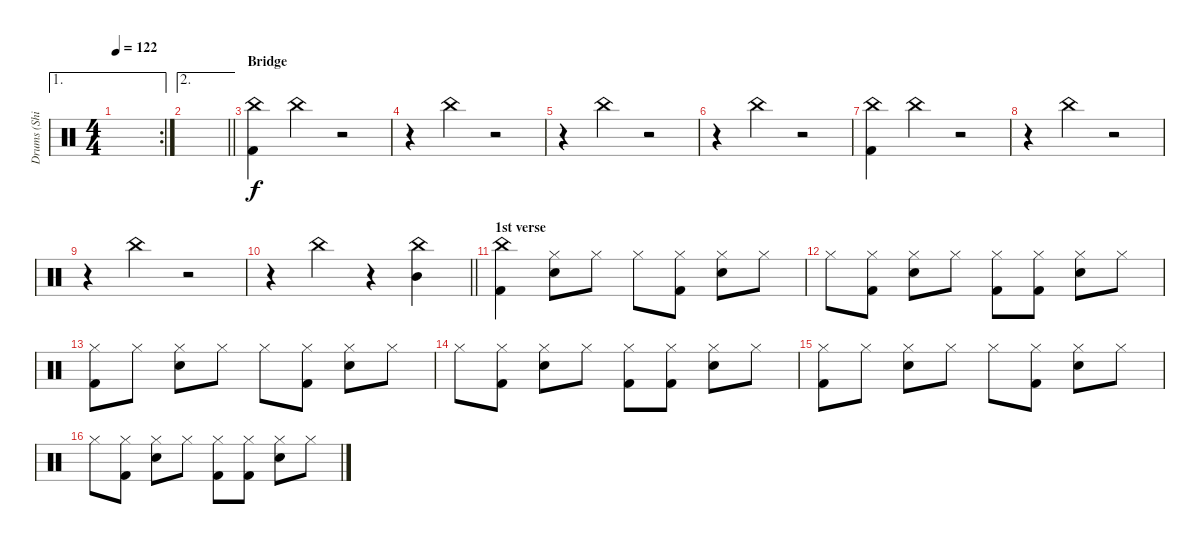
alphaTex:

\track ("Drums (Shinya)" "Drums (Shi") {instrument percussion}
\staff {score}
\articulation defaults
\ae 1
\rc 2
\ts (4 4)
\tempo 122
\clef neutral
\ks c
|
\ae 2
\barLineRight lightlight
|
\section ("" "Bridge")
("China (hit)" "Kick (hit) 2").4 "China (hit)".4 r.2 |
r.4 "China (hit)".4 r.2 |
r.4 "China (hit)".4 r.2 |
r.4 "China (hit)".4 r.2 |
("China (hit)" "Kick (hit) 2").4 "China (hit)".4 r.2 |
r.4 "China (hit)".4 r.2 |
r.4 "China (hit)".4 r.2 |
\barLineRight lightlight
r.4 "China (hit)".4 r.4 ("Mid Tom (hit)" "China (hit)").4 |
\section ("" "1st verse")
("China (hit)" "Kick (hit) 2").4 ("Snare (hit) 2" "Hi-Hat (closed)").8 "Hi-Hat (closed)".8 "Hi-Hat (closed)".8 ("Hi-Hat (closed)" "Kick (hit) 2").8 ("Snare (hit) 2" "Hi-Hat (closed)").8 "Hi-Hat (closed)".8 |
"Hi-Hat (closed)".8 ("Hi-Hat (closed)" "Kick (hit) 2").8 ("Snare (hit) 2" "Hi-Hat (closed)").8 "Hi-Hat (closed)".8 ("Hi-Hat (closed)" "Kick (hit) 2").8 ("Hi-Hat (closed)" "Kick (hit) 2").8 ("Snare (hit) 2" "Hi-Hat (closed)").8 "Hi-Hat (closed)".8 |
("Hi-Hat (closed)" "Kick (hit) 2").8 "Hi-Hat (closed)".8 ("Snare (hit) 2" "Hi-Hat (closed)").8 "Hi-Hat (closed)".8 "Hi-Hat (closed)".8 ("Hi-Hat (closed)" "Kick (hit) 2").8 ("Snare (hit) 2" "Hi-Hat (closed)").8 "Hi-Hat (closed)".8 |
"Hi-Hat (closed)".8 ("Hi-Hat (closed)" "Kick (hit) 2").8 ("Snare (hit) 2" "Hi-Hat (closed)").8 "Hi-Hat (closed)".8 ("Hi-Hat (closed)" "Kick (hit) 2").8 ("Hi-Hat (closed)" "Kick (hit) 2").8 ("Snare (hit) 2" "Hi-Hat (closed)").8 "Hi-Hat (closed)".8 |
("Hi-Hat (closed)" "Kick (hit) 2").8 "Hi-Hat (closed)".8 ("Snare (hit) 2" "Hi-Hat (closed)").8 "Hi-Hat (closed)".8 "Hi-Hat (closed)".8 ("Hi-Hat (closed)" "Kick (hit) 2").8 ("Snare (hit) 2" "Hi-Hat (closed)").8 "Hi-Hat (closed)".8 |
"Hi-Hat (closed)".8 ("Hi-Hat (closed)" "Kick (hit) 2").8 ("Snare (hit) 2" "Hi-Hat (closed)").8 "Hi-Hat (closed)".8 ("Hi-Hat (closed)" "Kick (hit) 2").8 ("Hi-Hat (closed)" "Kick (hit) 2").8 ("Snare (hit) 2" "Hi-Hat (closed)").8 "Hi-Hat (closed)".8
